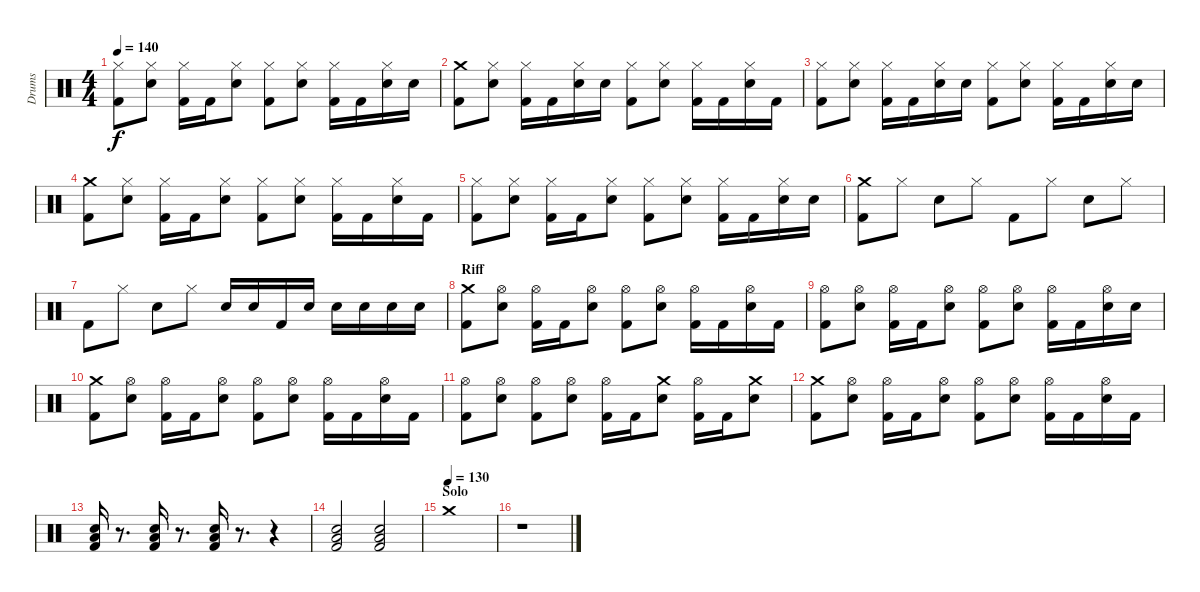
\track ("Drums" "Drums") {instrument percussion}
\staff {score}
\articulation defaults
\ts (4 4)
\tempo 140
\clef neutral
\ks c
("Hi-Hat (closed)" "Kick (hit) 2").8{dy f} ("Hi-Hat (closed)" "Electric Snare (hit)").8 ("Hi-Hat (closed)" "Kick (hit) 2").16 "Kick (hit) 2".16 ("Hi-Hat (closed)" "Electric Snare (hit)").8 ("Hi-Hat (closed)" "Kick (hit) 2").8 ("Hi-Hat (closed)" "Electric Snare (hit)").8 ("Hi-Hat (closed)" "Kick (hit) 2").16 "Kick (hit) 2".16 ("Hi-Hat (closed)" "Electric Snare (hit)").16 "Electric Snare (hit)".16 |
("Crash medium (hit)" "Kick (hit) 2").8 ("Hi-Hat (closed)" "Electric Snare (hit)").8 ("Hi-Hat (closed)" "Kick (hit) 2").16 "Kick (hit) 2".16 ("Hi-Hat (closed)" "Electric Snare (hit)").16 "Electric Snare (hit)".16 ("Hi-Hat (closed)" "Kick (hit) 2").8 ("Hi-Hat (closed)" "Electric Snare (hit)").8 ("Hi-Hat (closed)" "Kick (hit) 2").16 "Kick (hit) 2".16 ("Hi-Hat (closed)" "Electric Snare (hit)").16 "Kick (hit) 2".16 |
("Hi-Hat (closed)" "Kick (hit) 2").8 ("Hi-Hat (closed)" "Electric Snare (hit)").8 ("Hi-Hat (closed)" "Kick (hit) 2").16 "Kick (hit) 2".16 ("Hi-Hat (closed)" "Electric Snare (hit)").16 "Electric Snare (hit)".16 ("Hi-Hat (closed)" "Kick (hit) 2").8 ("Hi-Hat (closed)" "Electric Snare (hit)").8 ("Hi-Hat (closed)" "Kick (hit) 2").16 "Kick (hit) 2".16 ("Hi-Hat (closed)" "Electric Snare (hit)").16 "Electric Snare (hit)".16 |
("Crash medium (hit)" "Kick (hit) 2").8 ("Hi-Hat (closed)" "Electric Snare (hit)").8 ("Hi-Hat (closed)" "Kick (hit) 2").16 "Kick (hit) 2".16 ("Hi-Hat (closed)" "Electric Snare (hit)").8 ("Hi-Hat (closed)" "Kick (hit) 2").8 ("Hi-Hat (closed)" "Electric Snare (hit)").8 ("Hi-Hat (closed)" "Kick (hit) 2").16 "Kick (hit) 2".16 ("Hi-Hat (closed)" "Electric Snare (hit)").16 "Kick (hit) 2".16 |
("Hi-Hat (closed)" "Kick (hit) 2").8 ("Hi-Hat (closed)" "Electric Snare (hit)").8 ("Hi-Hat (closed)" "Kick (hit) 2").16 "Kick (hit) 2".16 ("Hi-Hat (closed)" "Electric Snare (hit)").8 ("Hi-Hat (closed)" "Kick (hit) 2").8 ("Hi-Hat (closed)" "Electric Snare (hit)").8 ("Hi-Hat (closed)" "Kick (hit) 2").16 "Kick (hit) 2".16 ("Hi-Hat (closed)" "Electric Snare (hit)").16 "Electric Snare (hit)".16 |
("Crash medium (hit)" "Kick (hit) 2").8 "Hi-Hat (closed)".8 "Electric Snare (hit)".8 "Hi-Hat (closed)".8 "Kick (hit) 2".8 "Hi-Hat (closed)".8 "Electric Snare (hit)".8 "Hi-Hat (closed)".8 |
"Kick (hit) 2".8 "Hi-Hat (closed)".8 "Electric Snare (hit)".8 "Hi-Hat (closed)".8 "Electric Snare (hit)".16 "Electric Snare (hit)".16 "Kick (hit) 2".16 "Electric Snare (hit)".16 "Electric Snare (hit)".16 "Electric Snare (hit)".16 "Electric Snare (hit)".16 "Electric Snare (hit)".16 |
\section ("" "Riff")
("Crash medium (hit)" "Kick (hit) 2").8 ("Hi-Hat (open)" "Electric Snare (hit)").8 ("Hi-Hat (open)" "Kick (hit) 2").16 "Kick (hit) 2".16 ("Hi-Hat (open)" "Electric Snare (hit)").8 ("Hi-Hat (open)" "Kick (hit) 2").8 ("Hi-Hat (open)" "Electric Snare (hit)").8 ("Hi-Hat (open)" "Kick (hit) 2").16 "Kick (hit) 2".16 ("Hi-Hat (open)" "Electric Snare (hit)").16 "Kick (hit) 2".16 |
("Hi-Hat (open)" "Kick (hit) 2").8 ("Hi-Hat (open)" "Electric Snare (hit)").8 ("Hi-Hat (open)" "Kick (hit) 2").16 "Kick (hit) 2".16 ("Hi-Hat (open)" "Electric Snare (hit)").8 ("Hi-Hat (open)" "Kick (hit) 2").8 ("Hi-Hat (open)" "Electric Snare (hit)").8 ("Hi-Hat (open)" "Kick (hit) 2").16 "Kick (hit) 2".16 ("Hi-Hat (open)" "Electric Snare (hit)").16 "Electric Snare (hit)".16 |
("Crash medium (hit)" "Kick (hit) 2").8 ("Hi-Hat (open)" "Electric Snare (hit)").8 ("Hi-Hat (open)" "Kick (hit) 2").16 "Kick (hit) 2".16 ("Hi-Hat (open)" "Electric Snare (hit)").8 ("Hi-Hat (open)" "Kick (hit) 2").8 ("Hi-Hat (open)" "Electric Snare (hit)").8 ("Hi-Hat (open)" "Kick (hit) 2").16 "Kick (hit) 2".16 ("Hi-Hat (open)" "Electric Snare (hit)").16 "Kick (hit) 2".16 |
("Hi-Hat (open)" "Kick (hit) 2").8 ("Hi-Hat (open)" "Electric Snare (hit)").8 ("Hi-Hat (open)" "Kick (hit) 2").8 ("Hi-Hat (open)" "Electric Snare (hit)").8 ("Hi-Hat (open)" "Kick (hit) 2").16 "Kick (hit) 2".16 ("Crash medium (hit)" "Electric Snare (hit)").8 ("Hi-Hat (open)" "Kick (hit) 2").16 "Kick (hit) 2".16 ("Crash medium (hit)" "Electric Snare (hit)").8 |
("Crash medium (hit)" "Kick (hit) 2").8 ("Hi-Hat (open)" "Electric Snare (hit)").8 ("Hi-Hat (open)" "Kick (hit) 2").16 "Kick (hit) 2".16 ("Hi-Hat (open)" "Electric Snare (hit)").8 ("Hi-Hat (open)" "Kick (hit) 2").8 ("Hi-Hat (open)" "Electric Snare (hit)").8 ("Hi-Hat (open)" "Kick (hit) 2").16 "Kick (hit) 2".16 ("Hi-Hat (open)" "Electric Snare (hit)").16 "Kick (hit) 2".16 |
("Low Floor Tom (hit)" "Electric Snare (hit)" "Kick (hit) 2").16 r.8{d} ("Low Floor Tom (hit)" "Electric Snare (hit)" "Kick (hit) 2").16 r.8{d} ("Low Floor Tom (hit)" "Electric Snare (hit)" "Kick (hit) 2").16 r.8{d} r.4 |
("Low Floor Tom (hit)" "Electric Snare (hit)" "Kick (hit) 2").2 ("Low Floor Tom (hit)" "Electric Snare (hit)" "Kick (hit) 2").2 |
\section ("" "Solo")
\tempo (130)
"Crash medium (hit)".1 |
r.1
